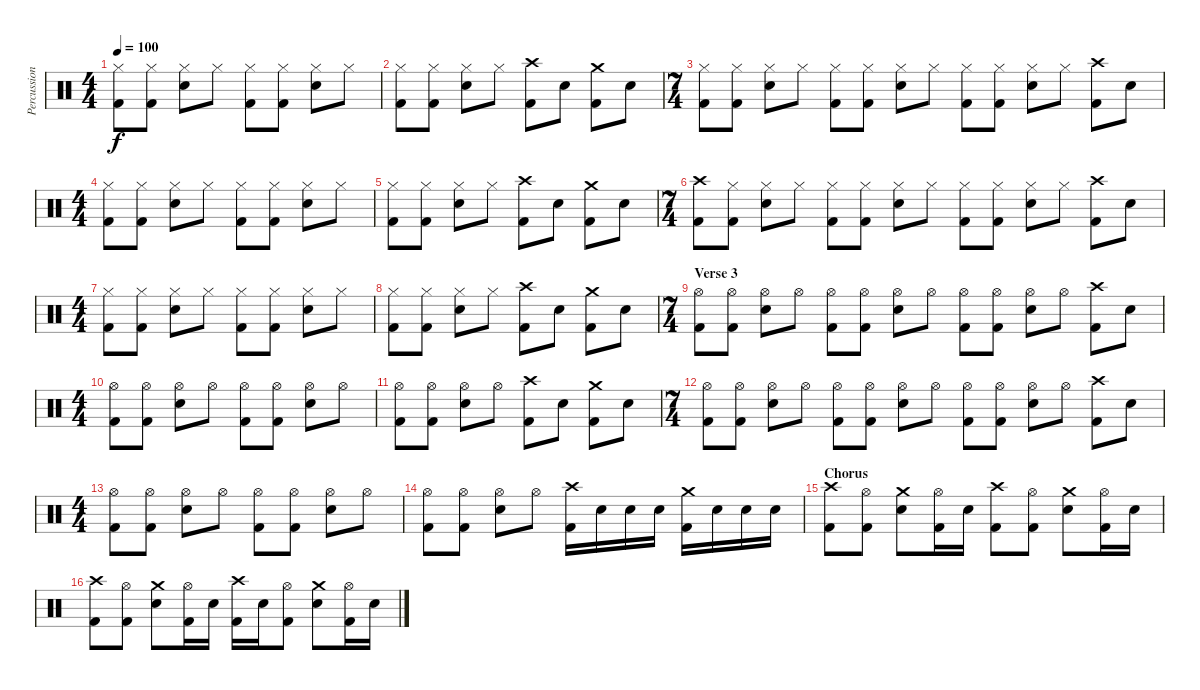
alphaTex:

\track ("Percussion" "Percussion") {instrument percussion}
\staff {score}
\articulation defaults
\ts (4 4)
\tempo 100
\clef neutral
\ks c
("Hi-Hat (closed)" "Kick (hit) 2").8{dy f} ("Hi-Hat (closed)" "Kick (hit) 2").8 ("Hi-Hat (closed)" "Electric Snare (hit)").8 "Hi-Hat (closed)".8 ("Hi-Hat (closed)" "Kick (hit) 2").8 ("Hi-Hat (closed)" "Kick (hit) 2").8 ("Hi-Hat (closed)" "Electric Snare (hit)").8 "Hi-Hat (closed)".8 |
("Hi-Hat (closed)" "Kick (hit) 2").8 ("Hi-Hat (closed)" "Kick (hit) 2").8 ("Hi-Hat (closed)" "Electric Snare (hit)").8 "Hi-Hat (closed)".8 ("Crash high (hit)" "Kick (hit) 2").8 "Electric Snare (hit)".8 ("Crash medium (hit)" "Kick (hit) 2").8 "Electric Snare (hit)".8 |
\ts (7 4)
("Hi-Hat (closed)" "Kick (hit) 2").8 ("Hi-Hat (closed)" "Kick (hit) 2").8 ("Hi-Hat (closed)" "Electric Snare (hit)").8 "Hi-Hat (closed)".8 ("Hi-Hat (closed)" "Kick (hit) 2").8 ("Hi-Hat (closed)" "Kick (hit) 2").8 ("Hi-Hat (closed)" "Electric Snare (hit)").8 "Hi-Hat (closed)".8 ("Hi-Hat (closed)" "Kick (hit) 2").8 ("Hi-Hat (closed)" "Kick (hit) 2").8 ("Hi-Hat (closed)" "Electric Snare (hit)").8 "Hi-Hat (closed)".8 ("Crash high (hit)" "Kick (hit) 2").8 "Electric Snare (hit)".8 |
\ts (4 4)
("Hi-Hat (closed)" "Kick (hit) 2").8 ("Hi-Hat (closed)" "Kick (hit) 2").8 ("Hi-Hat (closed)" "Electric Snare (hit)").8 "Hi-Hat (closed)".8 ("Hi-Hat (closed)" "Kick (hit) 2").8 ("Hi-Hat (closed)" "Kick (hit) 2").8 ("Hi-Hat (closed)" "Electric Snare (hit)").8 "Hi-Hat (closed)".8 |
("Hi-Hat (closed)" "Kick (hit) 2").8 ("Hi-Hat (closed)" "Kick (hit) 2").8 ("Hi-Hat (closed)" "Electric Snare (hit)").8 "Hi-Hat (closed)".8 ("Crash high (hit)" "Kick (hit) 2").8 "Electric Snare (hit)".8 ("Crash medium (hit)" "Kick (hit) 2").8 "Electric Snare (hit)".8 |
\ts (7 4)
("Crash high (hit)" "Kick (hit) 2").8 ("Hi-Hat (closed)" "Kick (hit) 2").8 ("Hi-Hat (closed)" "Electric Snare (hit)").8 "Hi-Hat (closed)".8 ("Hi-Hat (closed)" "Kick (hit) 2").8 ("Hi-Hat (closed)" "Kick (hit) 2").8 ("Hi-Hat (closed)" "Electric Snare (hit)").8 "Hi-Hat (closed)".8 ("Hi-Hat (closed)" "Kick (hit) 2").8 ("Hi-Hat (closed)" "Kick (hit) 2").8 ("Hi-Hat (closed)" "Electric Snare (hit)").8 "Hi-Hat (closed)".8 ("Crash high (hit)" "Kick (hit) 2").8 "Electric Snare (hit)".8 |
\ts (4 4)
("Hi-Hat (closed)" "Kick (hit) 2").8 ("Hi-Hat (closed)" "Kick (hit) 2").8 ("Hi-Hat (closed)" "Electric Snare (hit)").8 "Hi-Hat (closed)".8 ("Hi-Hat (closed)" "Kick (hit) 2").8 ("Hi-Hat (closed)" "Kick (hit) 2").8 ("Hi-Hat (closed)" "Electric Snare (hit)").8 "Hi-Hat (closed)".8 |
("Hi-Hat (closed)" "Kick (hit) 2").8 ("Hi-Hat (closed)" "Kick (hit) 2").8 ("Hi-Hat (closed)" "Electric Snare (hit)").8 "Hi-Hat (closed)".8 ("Crash high (hit)" "Kick (hit) 2").8 "Electric Snare (hit)".8 ("Crash medium (hit)" "Kick (hit) 2").8 "Electric Snare (hit)".8 |
\ts (7 4)
\section ("" "Verse 3")
("Hi-Hat (open)" "Kick (hit) 2").8 ("Hi-Hat (open)" "Kick (hit) 2").8 ("Hi-Hat (open)" "Electric Snare (hit)").8 "Hi-Hat (open)".8 ("Hi-Hat (open)" "Kick (hit) 2").8 ("Hi-Hat (open)" "Kick (hit) 2").8 ("Hi-Hat (open)" "Electric Snare (hit)").8 "Hi-Hat (open)".8 ("Hi-Hat (open)" "Kick (hit) 2").8 ("Hi-Hat (open)" "Kick (hit) 2").8 ("Hi-Hat (open)" "Electric Snare (hit)").8 "Hi-Hat (open)".8 ("Crash high (hit)" "Kick (hit) 2").8 "Electric Snare (hit)".8 |
\ts (4 4)
("Hi-Hat (open)" "Kick (hit) 2").8 ("Hi-Hat (open)" "Kick (hit) 2").8 ("Hi-Hat (open)" "Electric Snare (hit)").8 "Hi-Hat (open)".8 ("Hi-Hat (open)" "Kick (hit) 2").8 ("Hi-Hat (open)" "Kick (hit) 2").8 ("Hi-Hat (open)" "Electric Snare (hit)").8 "Hi-Hat (open)".8 |
("Hi-Hat (open)" "Kick (hit) 2").8 ("Hi-Hat (open)" "Kick (hit) 2").8 ("Hi-Hat (open)" "Electric Snare (hit)").8 "Hi-Hat (open)".8 ("Crash high (hit)" "Kick (hit) 2").8 "Electric Snare (hit)".8 ("Crash medium (hit)" "Kick (hit) 2").8 "Electric Snare (hit)".8 |
\ts (7 4)
("Hi-Hat (open)" "Kick (hit) 2").8 ("Hi-Hat (open)" "Kick (hit) 2").8 ("Hi-Hat (open)" "Electric Snare (hit)").8 "Hi-Hat (open)".8 ("Hi-Hat (open)" "Kick (hit) 2").8 ("Hi-Hat (open)" "Kick (hit) 2").8 ("Hi-Hat (open)" "Electric Snare (hit)").8 "Hi-Hat (open)".8 ("Hi-Hat (open)" "Kick (hit) 2").8 ("Hi-Hat (open)" "Kick (hit) 2").8 ("Hi-Hat (open)" "Electric Snare (hit)").8 "Hi-Hat (open)".8 ("Crash high (hit)" "Kick (hit) 2").8 "Electric Snare (hit)".8 |
\ts (4 4)
("Hi-Hat (open)" "Kick (hit) 2").8 ("Hi-Hat (open)" "Kick (hit) 2").8 ("Hi-Hat (open)" "Electric Snare (hit)").8 "Hi-Hat (open)".8 ("Hi-Hat (open)" "Kick (hit) 2").8 ("Hi-Hat (open)" "Kick (hit) 2").8 ("Hi-Hat (open)" "Electric Snare (hit)").8 "Hi-Hat (open)".8 |
("Hi-Hat (open)" "Kick (hit) 2").8 ("Hi-Hat (open)" "Kick (hit) 2").8 ("Hi-Hat (open)" "Electric Snare (hit)").8 "Hi-Hat (open)".8 ("Crash high (hit)" "Kick (hit) 2").16 "Electric Snare (hit)".16 "Electric Snare (hit)".16 "Electric Snare (hit)".16 ("Crash medium (hit)" "Kick (hit) 2").16 "Electric Snare (hit)".16 "Electric Snare (hit)".16 "Electric Snare (hit)".16 |
\section ("" "Chorus")
("Crash high (hit)" "Kick (hit) 2").8 ("Hi-Hat (open)" "Kick (hit) 2").8 ("Crash medium (hit)" "Electric Snare (hit)").8 ("Hi-Hat (open)" "Kick (hit) 2").16 "Electric Snare (hit)".16 ("Crash high (hit)" "Kick (hit) 2").8 ("Hi-Hat (open)" "Kick (hit) 2").8 ("Crash medium (hit)" "Electric Snare (hit)").8 ("Hi-Hat (open)" "Kick (hit) 2").16 "Electric Snare (hit)".16 |
("Crash high (hit)" "Kick (hit) 2").8 ("Hi-Hat (open)" "Kick (hit) 2").8 ("Crash medium (hit)" "Electric Snare (hit)").8 ("Hi-Hat (open)" "Kick (hit) 2").16 "Electric Snare (hit)".16 ("Crash high (hit)" "Kick (hit) 2").16 "Electric Snare (hit)".16 ("Hi-Hat (open)" "Kick (hit) 2").8 ("Crash medium (hit)" "Electric Snare (hit)").8 ("Hi-Hat (open)" "Kick (hit) 2").16 "Electric Snare (hit)".16
